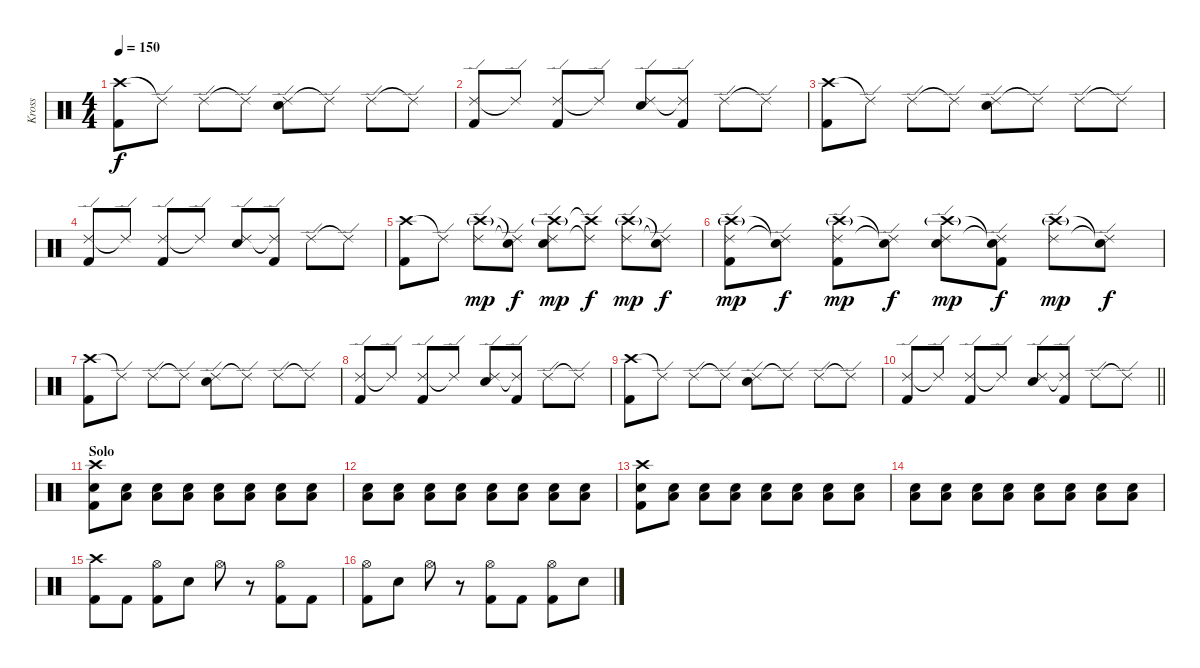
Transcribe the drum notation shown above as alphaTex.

\track ("Kross" "Kross") {instrument percussion}
\staff {score}
\articulation defaults
\ts (4 4)
\tempo 150
\clef neutral
\ks c
("Crash high (hit)" "Kick (hit) 2").8{dy f} "Ride (edge) 2"{t}.8 "Ride (edge) 2".8 "Ride (edge) 2"{t}.8 ("Ride (edge) 2" "Electric Snare (hit)").8 "Ride (edge) 2"{t}.8 "Ride (edge) 2".8 "Ride (edge) 2"{t}.8 |
("Ride (edge) 2" "Kick (hit) 2").8 "Ride (edge) 2"{t}.8 ("Ride (edge) 2" "Kick (hit) 2").8 "Ride (edge) 2"{t}.8 ("Ride (edge) 2" "Electric Snare (hit)").8 ("Ride (edge) 2"{t} "Kick (hit) 2").8 "Ride (edge) 2".8 "Ride (edge) 2"{t}.8 |
("Crash high (hit)" "Kick (hit) 2").8 "Ride (edge) 2"{t}.8 "Ride (edge) 2".8 "Ride (edge) 2"{t}.8 ("Ride (edge) 2" "Electric Snare (hit)").8 "Ride (edge) 2"{t}.8 "Ride (edge) 2".8 "Ride (edge) 2"{t}.8 |
("Ride (edge) 2" "Kick (hit) 2").8 "Ride (edge) 2"{t}.8 ("Ride (edge) 2" "Kick (hit) 2").8 "Ride (edge) 2"{t}.8 ("Ride (edge) 2" "Electric Snare (hit)").8 ("Ride (edge) 2"{t} "Kick (hit) 2").8 "Ride (edge) 2".8 "Ride (edge) 2"{t}.8 |
("Crash high (hit)" "Kick (hit) 2").8 "Ride (edge) 2"{t}.8 ("Crash high (hit)"{g} "Ride (edge) 2").8{dy mp} ("Snare (hit)"{t} "Ride (edge) 2"{t}).8{dy f} ("Crash high (hit)"{g} "Ride (edge) 2" "Electric Snare (hit)").8{dy mp} ("Crash high (hit)"{t} "Ride (edge) 2"{t}).8{dy f} ("Crash high (hit)"{g} "Ride (edge) 2").8{dy mp} ("Snare (hit)"{t} "Ride (edge) 2"{t}).8{dy f} |
("Crash high (hit)"{g} "Ride (edge) 2" "Kick (hit) 2").8{dy mp} ("Snare (hit)"{t} "Ride (edge) 2"{t}).8{dy f} ("Crash high (hit)"{g} "Ride (edge) 2" "Kick (hit) 2").8{dy mp} ("Snare (hit)"{t} "Ride (edge) 2"{t}).8{dy f} ("Crash high (hit)"{g} "Ride (edge) 2" "Electric Snare (hit)").8{dy mp} ("Snare (hit)"{t} "Ride (edge) 2"{t} "Kick (hit) 2").8{dy f} ("Crash high (hit)"{g} "Ride (edge) 2").8{dy mp} ("Snare (hit)"{t} "Ride (edge) 2"{t}).8{dy f} |
("Crash high (hit)" "Kick (hit) 2").8 "Ride (edge) 2"{t}.8 "Ride (edge) 2".8 "Ride (edge) 2"{t}.8 ("Ride (edge) 2" "Electric Snare (hit)").8 "Ride (edge) 2"{t}.8 "Ride (edge) 2".8 "Ride (edge) 2"{t}.8 |
("Ride (edge) 2" "Kick (hit) 2").8 "Ride (edge) 2"{t}.8 ("Ride (edge) 2" "Kick (hit) 2").8 "Ride (edge) 2"{t}.8 ("Ride (edge) 2" "Electric Snare (hit)").8 ("Ride (edge) 2"{t} "Kick (hit) 2").8 "Ride (edge) 2".8 "Ride (edge) 2"{t}.8 |
("Crash high (hit)" "Kick (hit) 2").8 "Ride (edge) 2"{t}.8 "Ride (edge) 2".8 "Ride (edge) 2"{t}.8 ("Ride (edge) 2" "Electric Snare (hit)").8 "Ride (edge) 2"{t}.8 "Ride (edge) 2".8 "Ride (edge) 2"{t}.8 |
\barLineRight lightlight
("Ride (edge) 2" "Kick (hit) 2").8 "Ride (edge) 2"{t}.8 ("Ride (edge) 2" "Kick (hit) 2").8 "Ride (edge) 2"{t}.8 ("Ride (edge) 2" "Electric Snare (hit)").8 ("Ride (edge) 2"{t} "Kick (hit) 2").8 "Ride (edge) 2".8 "Ride (edge) 2"{t}.8 |
\section ("" "Solo")
("Electric Snare (hit)" "Crash high (hit)" "Kick (hit) 2").8 ("Low Floor Tom (hit)" "Electric Snare (hit)").8 ("Low Floor Tom (hit)" "Electric Snare (hit)").8 ("Low Floor Tom (hit)" "Electric Snare (hit)").8 ("Low Floor Tom (hit)" "Electric Snare (hit)").8 ("Low Floor Tom (hit)" "Electric Snare (hit)").8 ("Low Floor Tom (hit)" "Electric Snare (hit)").8 ("Low Floor Tom (hit)" "Electric Snare (hit)").8 |
("Electric Snare (hit)" "Low Floor Tom (hit)").8 ("Low Floor Tom (hit)" "Electric Snare (hit)").8 ("Low Floor Tom (hit)" "Electric Snare (hit)").8 ("Low Floor Tom (hit)" "Electric Snare (hit)").8 ("Low Floor Tom (hit)" "Electric Snare (hit)").8 ("Low Floor Tom (hit)" "Electric Snare (hit)").8 ("Low Floor Tom (hit)" "Electric Snare (hit)").8 ("Low Floor Tom (hit)" "Electric Snare (hit)").8 |
("Electric Snare (hit)" "Crash high (hit)" "Kick (hit) 2").8 ("Low Floor Tom (hit)" "Electric Snare (hit)").8 ("Low Floor Tom (hit)" "Electric Snare (hit)").8 ("Low Floor Tom (hit)" "Electric Snare (hit)").8 ("Low Floor Tom (hit)" "Electric Snare (hit)").8 ("Low Floor Tom (hit)" "Electric Snare (hit)").8 ("Low Floor Tom (hit)" "Electric Snare (hit)").8 ("Low Floor Tom (hit)" "Electric Snare (hit)").8 |
("Electric Snare (hit)" "Low Floor Tom (hit)").8 ("Low Floor Tom (hit)" "Electric Snare (hit)").8 ("Low Floor Tom (hit)" "Electric Snare (hit)").8 ("Low Floor Tom (hit)" "Electric Snare (hit)").8 ("Low Floor Tom (hit)" "Electric Snare (hit)").8 ("Low Floor Tom (hit)" "Electric Snare (hit)").8 ("Low Floor Tom (hit)" "Electric Snare (hit)").8 ("Low Floor Tom (hit)" "Electric Snare (hit)").8 |
("Crash high (hit)" "Kick (hit) 2").8 "Kick (hit) 2".8 ("Hi-Hat (open)" "Kick (hit) 2").8 "Electric Snare (hit)".8 "Hi-Hat (open)".8 r.8 ("Hi-Hat (open)" "Kick (hit) 2").8 "Kick (hit) 2".8 |
("Hi-Hat (open)" "Kick (hit) 2").8 "Electric Snare (hit)".8 "Hi-Hat (open)".8 r.8 ("Hi-Hat (open)" "Kick (hit) 2").8 "Kick (hit) 2".8 ("Hi-Hat (open)" "Kick (hit) 2").8 "Electric Snare (hit)".8
